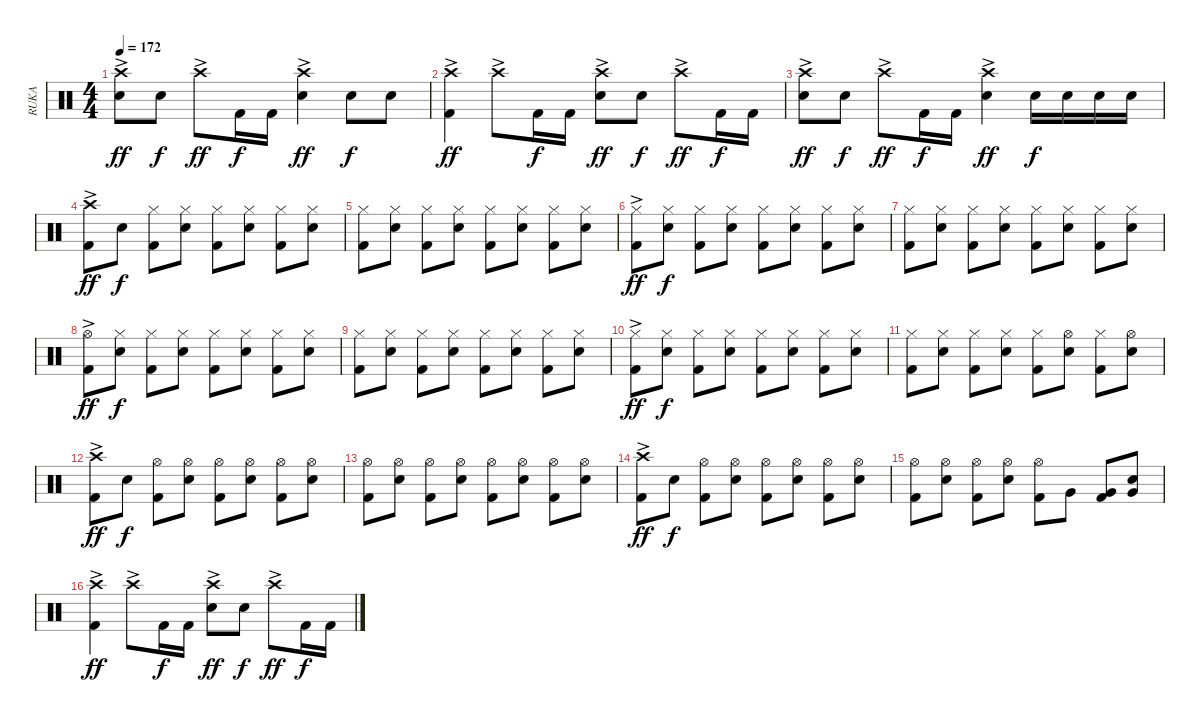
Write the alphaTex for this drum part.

\track ("RUKA" "RUKA") {instrument percussion}
\staff {score}
\articulation defaults
\ts (4 4)
\tempo 172
\clef neutral
\ks c
("Crash high (hit)"{ac} "Snare (hit) 2").8{dy ff} "Snare (hit) 2".8{dy f} "Crash high (hit)"{ac}.8{dy ff} "Kick (hit) 2".16{dy f} "Kick (hit) 2".16 ("Crash high (hit)"{ac} "Snare (hit) 2").4{dy ff} "Snare (hit) 2".8{dy f} "Snare (hit) 2".8 |
("Crash high (hit)"{ac} "Kick (hit) 2").4{dy ff} "Crash high (hit)"{ac}.8 "Kick (hit) 2".16{dy f} "Kick (hit) 2".16 ("Crash high (hit)"{ac} "Snare (hit) 2").8{dy ff} "Snare (hit) 2".8{dy f} "Crash high (hit)"{ac}.8{dy ff} "Kick (hit) 2".16{dy f} "Kick (hit) 2".16 |
("Crash high (hit)"{ac} "Snare (hit) 2").8{dy ff} "Snare (hit) 2".8{dy f} "Crash high (hit)"{ac}.8{dy ff} "Kick (hit) 2".16{dy f} "Kick (hit) 2".16 ("Crash high (hit)"{ac} "Snare (hit) 2").4{dy ff} "Snare (hit) 2".16{dy f} "Snare (hit) 2".16 "Snare (hit) 2".16 "Snare (hit) 2".16 |
("Crash high (hit)"{ac} "Kick (hit) 2").8{dy ff} "Snare (hit) 2".8{dy f} ("Hi-Hat (closed)" "Kick (hit) 2").8 ("Hi-Hat (closed)" "Snare (hit) 2").8 ("Hi-Hat (closed)" "Kick (hit) 2").8 ("Hi-Hat (closed)" "Snare (hit) 2").8 ("Hi-Hat (closed)" "Kick (hit) 2").8 ("Hi-Hat (closed)" "Snare (hit) 2").8 |
("Hi-Hat (closed)" "Kick (hit) 2").8 ("Hi-Hat (closed)" "Snare (hit) 2").8 ("Hi-Hat (closed)" "Kick (hit) 2").8 ("Hi-Hat (closed)" "Snare (hit) 2").8 ("Hi-Hat (closed)" "Kick (hit) 2").8 ("Hi-Hat (closed)" "Snare (hit) 2").8 ("Hi-Hat (closed)" "Kick (hit) 2").8 ("Hi-Hat (closed)" "Snare (hit) 2").8 |
("Hi-Hat (closed)"{ac} "Kick (hit) 2").8{dy ff} ("Hi-Hat (closed)" "Snare (hit) 2").8{dy f} ("Hi-Hat (closed)" "Kick (hit) 2").8 ("Hi-Hat (closed)" "Snare (hit) 2").8 ("Hi-Hat (closed)" "Kick (hit) 2").8 ("Hi-Hat (closed)" "Snare (hit) 2").8 ("Hi-Hat (closed)" "Kick (hit) 2").8 ("Hi-Hat (closed)" "Snare (hit) 2").8 |
("Hi-Hat (closed)" "Kick (hit) 2").8 ("Hi-Hat (closed)" "Snare (hit) 2").8 ("Hi-Hat (closed)" "Kick (hit) 2").8 ("Hi-Hat (closed)" "Snare (hit) 2").8 ("Hi-Hat (closed)" "Kick (hit) 2").8 ("Hi-Hat (closed)" "Snare (hit) 2").8 ("Hi-Hat (closed)" "Kick (hit) 2").8 ("Hi-Hat (closed)" "Snare (hit) 2").8 |
("Hi-Hat (open)"{ac} "Kick (hit) 2").8{dy ff} ("Hi-Hat (closed)" "Snare (hit) 2").8{dy f} ("Hi-Hat (closed)" "Kick (hit) 2").8 ("Hi-Hat (closed)" "Snare (hit) 2").8 ("Hi-Hat (closed)" "Kick (hit) 2").8 ("Hi-Hat (closed)" "Snare (hit) 2").8 ("Hi-Hat (closed)" "Kick (hit) 2").8 ("Hi-Hat (closed)" "Snare (hit) 2").8 |
("Hi-Hat (closed)" "Kick (hit) 2").8 ("Hi-Hat (closed)" "Snare (hit) 2").8 ("Hi-Hat (closed)" "Kick (hit) 2").8 ("Hi-Hat (closed)" "Snare (hit) 2").8 ("Hi-Hat (closed)" "Kick (hit) 2").8 ("Hi-Hat (closed)" "Snare (hit) 2").8 ("Hi-Hat (closed)" "Kick (hit) 2").8 ("Hi-Hat (closed)" "Snare (hit) 2").8 |
("Hi-Hat (closed)"{ac} "Kick (hit) 2").8{dy ff} ("Hi-Hat (closed)" "Snare (hit) 2").8{dy f} ("Hi-Hat (closed)" "Kick (hit) 2").8 ("Hi-Hat (closed)" "Snare (hit) 2").8 ("Hi-Hat (closed)" "Kick (hit) 2").8 ("Hi-Hat (closed)" "Snare (hit) 2").8 ("Hi-Hat (closed)" "Kick (hit) 2").8 ("Hi-Hat (closed)" "Snare (hit) 2").8 |
("Hi-Hat (closed)" "Kick (hit) 2").8 ("Hi-Hat (closed)" "Snare (hit) 2").8 ("Hi-Hat (closed)" "Kick (hit) 2").8 ("Hi-Hat (closed)" "Snare (hit) 2").8 ("Hi-Hat (closed)" "Kick (hit) 2").8 ("Hi-Hat (open)" "Snare (hit) 2").8 ("Hi-Hat (closed)" "Kick (hit) 2").8 ("Hi-Hat (open)" "Snare (hit) 2").8 |
("Crash high (hit)"{ac} "Kick (hit) 2").8{dy ff} "Snare (hit) 2".8{dy f} ("Hi-Hat (open)" "Kick (hit) 2").8 ("Hi-Hat (open)" "Snare (hit) 2").8 ("Hi-Hat (open)" "Kick (hit) 2").8 ("Hi-Hat (open)" "Snare (hit) 2").8 ("Hi-Hat (open)" "Kick (hit) 2").8 ("Hi-Hat (open)" "Snare (hit) 2").8 |
("Hi-Hat (open)" "Kick (hit) 2").8 ("Hi-Hat (open)" "Snare (hit) 2").8 ("Hi-Hat (open)" "Kick (hit) 2").8 ("Hi-Hat (open)" "Snare (hit) 2").8 ("Hi-Hat (open)" "Kick (hit) 2").8 ("Hi-Hat (open)" "Snare (hit) 2").8 ("Hi-Hat (open)" "Kick (hit) 2").8 ("Hi-Hat (open)" "Snare (hit) 2").8 |
("Crash high (hit)"{ac} "Kick (hit) 2").8{dy ff} "Snare (hit) 2".8{dy f} ("Hi-Hat (open)" "Kick (hit) 2").8 ("Hi-Hat (open)" "Snare (hit) 2").8 ("Hi-Hat (open)" "Kick (hit) 2").8 ("Hi-Hat (open)" "Snare (hit) 2").8 ("Hi-Hat (open)" "Kick (hit) 2").8 ("Hi-Hat (open)" "Snare (hit) 2").8 |
("Hi-Hat (open)" "Kick (hit) 2").8 ("Hi-Hat (open)" "Snare (hit) 2").8 ("Hi-Hat (open)" "Kick (hit) 2").8 ("Hi-Hat (open)" "Snare (hit) 2").8 ("Hi-Hat (open)" "Kick (hit) 2").8 "Very Low Tom (hit)".8 ("Very Low Tom (hit)" "Kick (hit) 2").8 ("Snare (hit) 2" "Very Low Tom (hit)").8 |
("Crash high (hit)"{ac} "Kick (hit) 2").4{dy ff} "Crash high (hit)"{ac}.8 "Kick (hit) 2".16{dy f} "Kick (hit) 2".16 ("Crash high (hit)"{ac} "Snare (hit) 2").8{dy ff} "Snare (hit) 2".8{dy f} "Crash high (hit)"{ac}.8{dy ff} "Kick (hit) 2".16{dy f} "Kick (hit) 2".16
